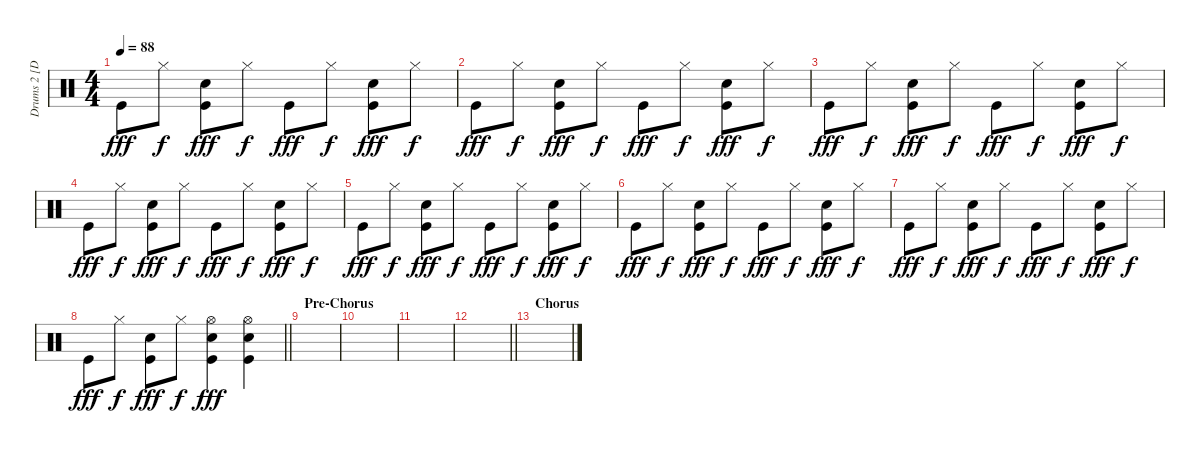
\track ("Drums 2 [Doom]" "Drums 2 [D") {instrument percussion}
\staff {score}
\articulation defaults
\ts (4 4)
\tempo 88
\clef neutral
\ks c "Kick (hit)".8{dy fff} "Hi-Hat (closed)".8{dy f}
("Snare (hit) 2" "Kick (hit)").8{dy fff} "Hi-Hat (closed)".8{dy f} "Kick (hit)".8{dy fff} "Hi-Hat (closed)".8{dy f} ("Snare (hit) 2" "Kick (hit)").8{dy fff} "Hi-Hat (closed)".8{dy f} |
"Kick (hit)".8{dy fff} "Hi-Hat (closed)".8{dy f} ("Snare (hit) 2" "Kick (hit)").8{dy fff} "Hi-Hat (closed)".8{dy f} "Kick (hit)".8{dy fff} "Hi-Hat (closed)".8{dy f} ("Snare (hit) 2" "Kick (hit)").8{dy fff} "Hi-Hat (closed)".8{dy f} |
"Kick (hit)".8{dy fff} "Hi-Hat (closed)".8{dy f} ("Snare (hit) 2" "Kick (hit)").8{dy fff} "Hi-Hat (closed)".8{dy f} "Kick (hit)".8{dy fff} "Hi-Hat (closed)".8{dy f} ("Snare (hit) 2" "Kick (hit)").8{dy fff} "Hi-Hat (closed)".8{dy f} |
"Kick (hit)".8{dy fff} "Hi-Hat (closed)".8{dy f} ("Snare (hit) 2" "Kick (hit)").8{dy fff} "Hi-Hat (closed)".8{dy f} "Kick (hit)".8{dy fff} "Hi-Hat (closed)".8{dy f} ("Snare (hit) 2" "Kick (hit)").8{dy fff} "Hi-Hat (closed)".8{dy f} |
"Kick (hit)".8{dy fff} "Hi-Hat (closed)".8{dy f} ("Snare (hit) 2" "Kick (hit)").8{dy fff} "Hi-Hat (closed)".8{dy f} "Kick (hit)".8{dy fff} "Hi-Hat (closed)".8{dy f} ("Snare (hit) 2" "Kick (hit)").8{dy fff} "Hi-Hat (closed)".8{dy f} |
"Kick (hit)".8{dy fff} "Hi-Hat (closed)".8{dy f} ("Snare (hit) 2" "Kick (hit)").8{dy fff} "Hi-Hat (closed)".8{dy f} "Kick (hit)".8{dy fff} "Hi-Hat (closed)".8{dy f} ("Snare (hit) 2" "Kick (hit)").8{dy fff} "Hi-Hat (closed)".8{dy f} |
"Kick (hit)".8{dy fff} "Hi-Hat (closed)".8{dy f} ("Snare (hit) 2" "Kick (hit)").8{dy fff} "Hi-Hat (closed)".8{dy f} "Kick (hit)".8{dy fff} "Hi-Hat (closed)".8{dy f} ("Snare (hit) 2" "Kick (hit)").8{dy fff} "Hi-Hat (closed)".8{dy f} |
\barLineRight lightlight "Kick (hit)".8{dy fff} "Hi-Hat (closed)".8{dy f}
("Snare (hit) 2" "Kick (hit)").8{dy fff} "Hi-Hat (closed)".8{dy f} ("Hi-Hat (open)" "Snare (hit) 2" "Kick (hit)").4{dy fff} ("Hi-Hat (open)" "Snare (hit) 2" "Kick (hit)").4 |
\section ("" "Pre-Chorus ")
|
|
|
\barLineRight lightlight
|
\section ("" "Chorus")
